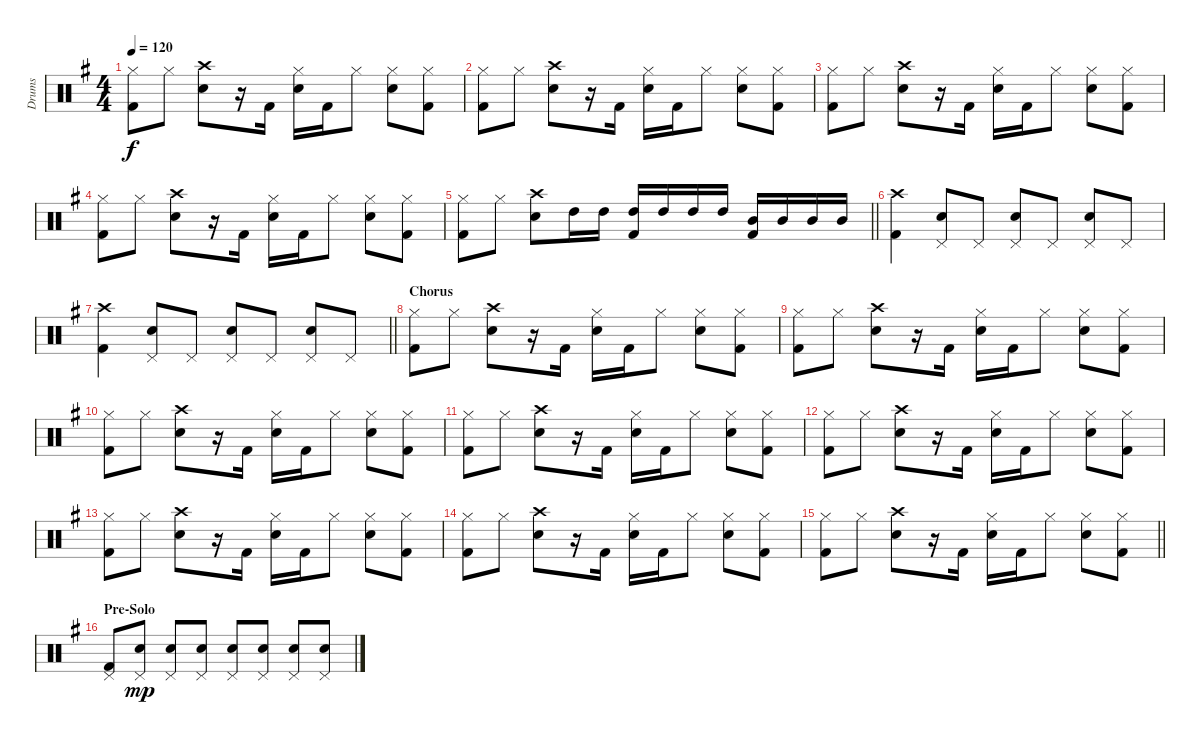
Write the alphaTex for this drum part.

\track ("Drums" "Drums") {instrument percussion}
\staff {score}
\articulation defaults
\ts (4 4)
\tempo 120
\clef neutral
\ks g
("Hi-Hat (closed)" "Kick (hit) 2").8{dy f} "Hi-Hat (closed)".8 ("Crash high (hit)" "Electric Snare (hit)").8 r.16 "Kick (hit) 2".16 ("Hi-Hat (closed)" "Electric Snare (hit)").16 "Kick (hit) 2".16 "Hi-Hat (closed)".8 ("Hi-Hat (closed)" "Electric Snare (hit)").8 ("Hi-Hat (closed)" "Kick (hit) 2").8 |
("Hi-Hat (closed)" "Kick (hit) 2").8 "Hi-Hat (closed)".8 ("Crash high (hit)" "Electric Snare (hit)").8 r.16 "Kick (hit) 2".16 ("Hi-Hat (closed)" "Electric Snare (hit)").16 "Kick (hit) 2".16 "Hi-Hat (closed)".8 ("Hi-Hat (closed)" "Electric Snare (hit)").8 ("Hi-Hat (closed)" "Kick (hit) 2").8 |
("Hi-Hat (closed)" "Kick (hit) 2").8 "Hi-Hat (closed)".8 ("Crash high (hit)" "Electric Snare (hit)").8 r.16 "Kick (hit) 2".16 ("Hi-Hat (closed)" "Electric Snare (hit)").16 "Kick (hit) 2".16 "Hi-Hat (closed)".8 ("Hi-Hat (closed)" "Electric Snare (hit)").8 ("Hi-Hat (closed)" "Kick (hit) 2").8 |
("Hi-Hat (closed)" "Kick (hit) 2").8 "Hi-Hat (closed)".8 ("Crash high (hit)" "Electric Snare (hit)").8 r.16 "Kick (hit) 2".16 ("Hi-Hat (closed)" "Electric Snare (hit)").16 "Kick (hit) 2".16 "Hi-Hat (closed)".8 ("Hi-Hat (closed)" "Electric Snare (hit)").8 ("Hi-Hat (closed)" "Kick (hit) 2").8 |
\barLineRight lightlight
("Hi-Hat (closed)" "Kick (hit) 2").8 "Hi-Hat (closed)".8 ("Crash high (hit)" "Electric Snare (hit)").8 "High Tom (hit)".16 "High Tom (hit)".16 ("High Tom (hit)" "Kick (hit) 2").16 "High Tom (hit)".16 "High Tom (hit)".16 "High Tom (hit)".16 ("Mid Tom (hit)" "Kick (hit) 2").16 "Mid Tom (hit)".16 "Mid Tom (hit)".16 "Mid Tom (hit)".16 |
("Crash high (hit)" "Kick (hit) 2").4 ("Pedal Hi-Hat (hit)" "Electric Snare (hit)").8 "Pedal Hi-Hat (hit)".8 ("Pedal Hi-Hat (hit)" "Electric Snare (hit)").8 "Pedal Hi-Hat (hit)".8 ("Pedal Hi-Hat (hit)" "Electric Snare (hit)").8 "Pedal Hi-Hat (hit)".8 |
\barLineRight lightlight
("Crash high (hit)" "Kick (hit) 2").4 ("Pedal Hi-Hat (hit)" "Electric Snare (hit)").8 "Pedal Hi-Hat (hit)".8 ("Pedal Hi-Hat (hit)" "Electric Snare (hit)").8 "Pedal Hi-Hat (hit)".8 ("Pedal Hi-Hat (hit)" "Electric Snare (hit)").8 "Pedal Hi-Hat (hit)".8 |
\section ("" "Chorus")
("Hi-Hat (closed)" "Kick (hit) 2").8 "Hi-Hat (closed)".8 ("Crash high (hit)" "Electric Snare (hit)").8 r.16 "Kick (hit) 2".16 ("Hi-Hat (closed)" "Electric Snare (hit)").16 "Kick (hit) 2".16 "Hi-Hat (closed)".8 ("Hi-Hat (closed)" "Electric Snare (hit)").8 ("Hi-Hat (closed)" "Kick (hit) 2").8 |
("Hi-Hat (closed)" "Kick (hit) 2").8 "Hi-Hat (closed)".8 ("Crash high (hit)" "Electric Snare (hit)").8 r.16 "Kick (hit) 2".16 ("Hi-Hat (closed)" "Electric Snare (hit)").16 "Kick (hit) 2".16 "Hi-Hat (closed)".8 ("Hi-Hat (closed)" "Electric Snare (hit)").8 ("Hi-Hat (closed)" "Kick (hit) 2").8 |
("Hi-Hat (closed)" "Kick (hit) 2").8 "Hi-Hat (closed)".8 ("Crash high (hit)" "Electric Snare (hit)").8 r.16 "Kick (hit) 2".16 ("Hi-Hat (closed)" "Electric Snare (hit)").16 "Kick (hit) 2".16 "Hi-Hat (closed)".8 ("Hi-Hat (closed)" "Electric Snare (hit)").8 ("Hi-Hat (closed)" "Kick (hit) 2").8 |
("Hi-Hat (closed)" "Kick (hit) 2").8 "Hi-Hat (closed)".8 ("Crash high (hit)" "Electric Snare (hit)").8 r.16 "Kick (hit) 2".16 ("Hi-Hat (closed)" "Electric Snare (hit)").16 "Kick (hit) 2".16 "Hi-Hat (closed)".8 ("Hi-Hat (closed)" "Electric Snare (hit)").8 ("Hi-Hat (closed)" "Kick (hit) 2").8 |
("Hi-Hat (closed)" "Kick (hit) 2").8 "Hi-Hat (closed)".8 ("Crash high (hit)" "Electric Snare (hit)").8 r.16 "Kick (hit) 2".16 ("Hi-Hat (closed)" "Electric Snare (hit)").16 "Kick (hit) 2".16 "Hi-Hat (closed)".8 ("Hi-Hat (closed)" "Electric Snare (hit)").8 ("Hi-Hat (closed)" "Kick (hit) 2").8 |
("Hi-Hat (closed)" "Kick (hit) 2").8 "Hi-Hat (closed)".8 ("Crash high (hit)" "Electric Snare (hit)").8 r.16 "Kick (hit) 2".16 ("Hi-Hat (closed)" "Electric Snare (hit)").16 "Kick (hit) 2".16 "Hi-Hat (closed)".8 ("Hi-Hat (closed)" "Electric Snare (hit)").8 ("Hi-Hat (closed)" "Kick (hit) 2").8 |
("Hi-Hat (closed)" "Kick (hit) 2").8 "Hi-Hat (closed)".8 ("Crash high (hit)" "Electric Snare (hit)").8 r.16 "Kick (hit) 2".16 ("Hi-Hat (closed)" "Electric Snare (hit)").16 "Kick (hit) 2".16 "Hi-Hat (closed)".8 ("Hi-Hat (closed)" "Electric Snare (hit)").8 ("Hi-Hat (closed)" "Kick (hit) 2").8 |
\barLineRight lightlight
("Hi-Hat (closed)" "Kick (hit) 2").8 "Hi-Hat (closed)".8 ("Crash high (hit)" "Electric Snare (hit)").8 r.16 "Kick (hit) 2".16 ("Hi-Hat (closed)" "Electric Snare (hit)").16 "Kick (hit) 2".16 "Hi-Hat (closed)".8 ("Hi-Hat (closed)" "Electric Snare (hit)").8 ("Hi-Hat (closed)" "Kick (hit) 2").8 |
\section ("" "Pre-Solo")
("Pedal Hi-Hat (hit)" "Kick (hit) 2").8 ("Pedal Hi-Hat (hit)" "Electric Snare (hit)").8{dy mp} ("Pedal Hi-Hat (hit)" "Electric Snare (hit)").8 ("Pedal Hi-Hat (hit)" "Electric Snare (hit)").8 ("Pedal Hi-Hat (hit)" "Electric Snare (hit)").8 ("Pedal Hi-Hat (hit)" "Electric Snare (hit)").8 ("Pedal Hi-Hat (hit)" "Electric Snare (hit)").8 ("Pedal Hi-Hat (hit)" "Electric Snare (hit)").8
